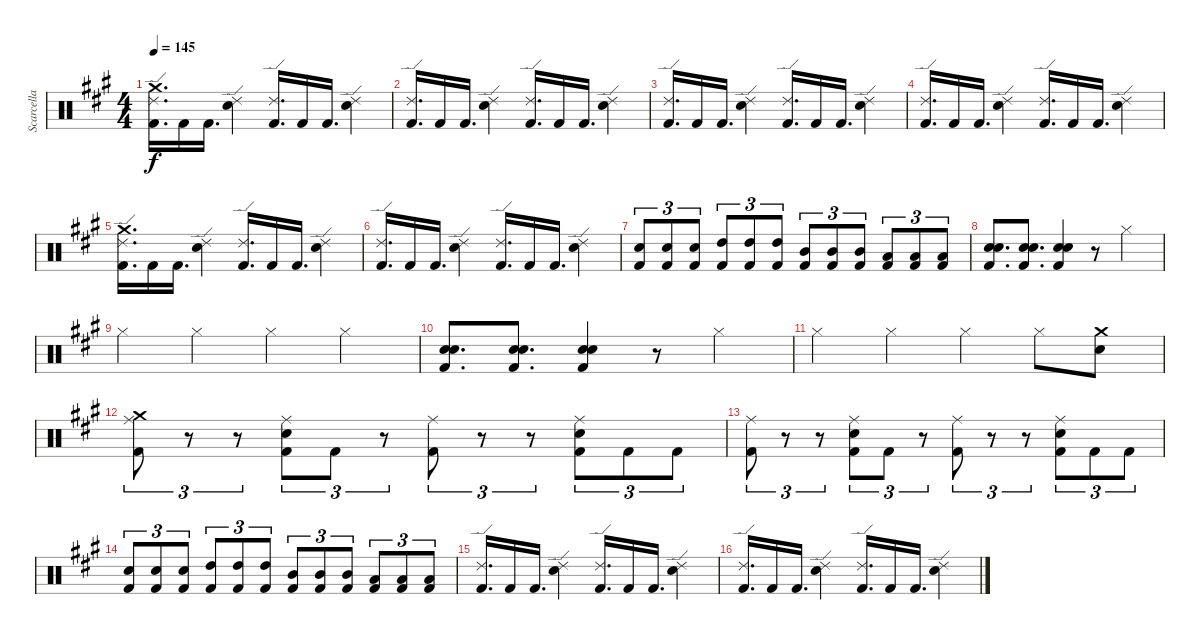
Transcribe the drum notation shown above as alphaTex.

\track ("Scarcella" "Scarcella") {instrument percussion}
\staff {score}
\articulation defaults
\ts (4 4)
\tempo 145
\clef neutral
\ks f#minor
("Crash medium (hit)" "Ride (edge) 2" "Kick (hit) 2").16{d dy f} "Kick (hit) 2".16 "Kick (hit) 2".16{d} ("Ride (edge) 2" "Snare (hit) 2").4 ("Ride (edge) 2" "Kick (hit) 2").16{d} "Kick (hit) 2".16 "Kick (hit) 2".16{d} ("Ride (edge) 2" "Snare (hit) 2").4 |
("Ride (edge) 2" "Kick (hit) 2").16{d} "Kick (hit) 2".16 "Kick (hit) 2".16{d} ("Ride (edge) 2" "Snare (hit) 2").4 ("Ride (edge) 2" "Kick (hit) 2").16{d} "Kick (hit) 2".16 "Kick (hit) 2".16{d} ("Ride (edge) 2" "Snare (hit) 2").4 |
("Ride (edge) 2" "Kick (hit) 2").16{d} "Kick (hit) 2".16 "Kick (hit) 2".16{d} ("Ride (edge) 2" "Snare (hit) 2").4 ("Ride (edge) 2" "Kick (hit) 2").16{d} "Kick (hit) 2".16 "Kick (hit) 2".16{d} ("Ride (edge) 2" "Snare (hit) 2").4 |
("Ride (edge) 2" "Kick (hit) 2").16{d} "Kick (hit) 2".16 "Kick (hit) 2".16{d} ("Ride (edge) 2" "Snare (hit) 2").4 ("Ride (edge) 2" "Kick (hit) 2").16{d} "Kick (hit) 2".16 "Kick (hit) 2".16{d} ("Ride (edge) 2" "Snare (hit) 2").4 |
("Crash medium (hit)" "Ride (edge) 2" "Kick (hit) 2").16{d} "Kick (hit) 2".16 "Kick (hit) 2".16{d} ("Ride (edge) 2" "Snare (hit) 2").4 ("Ride (edge) 2" "Kick (hit) 2").16{d} "Kick (hit) 2".16 "Kick (hit) 2".16{d} ("Ride (edge) 2" "Snare (hit) 2").4 |
("Ride (edge) 2" "Kick (hit) 2").16{d} "Kick (hit) 2".16 "Kick (hit) 2".16{d} ("Ride (edge) 2" "Snare (hit) 2").4 ("Ride (edge) 2" "Kick (hit) 2").16{d} "Kick (hit) 2".16 "Kick (hit) 2".16{d} ("Ride (edge) 2" "Snare (hit) 2").4 |
("Snare (hit) 2" "Kick (hit) 2").8{tu (3 2)} ("Snare (hit) 2" "Kick (hit) 2").8{tu (3 2)} ("Snare (hit) 2" "Kick (hit) 2").8{tu (3 2)} ("High Tom (hit)" "Kick (hit) 2").8{tu (3 2)} ("High Tom (hit)" "Kick (hit) 2").8{tu (3 2)} ("High Tom (hit)" "Kick (hit) 2").8{tu (3 2)} ("Mid Tom (hit)" "Kick (hit) 2").8{tu (3 2)} ("Mid Tom (hit)" "Kick (hit) 2").8{tu (3 2)} ("Mid Tom (hit)" "Kick (hit) 2").8{tu (3 2)} ("Low Tom (hit)" "Kick (hit) 2").8{tu (3 2)} ("Low Tom (hit)" "Kick (hit) 2").8{tu (3 2)} ("Low Tom (hit)" "Kick (hit) 2").8{tu (3 2)} |
("Snare (hit) 2" "Kick (hit) 2" "Snare (hit) 2").8{d} ("Snare (hit) 2" "Kick (hit) 2" "Snare (hit) 2").8{d} ("Snare (hit) 2" "Kick (hit) 2" "Snare (hit) 2").4 r.8 "Hi-Hat (closed)".4 |
"Hi-Hat (closed)".4 "Hi-Hat (closed)".4 "Hi-Hat (closed)".4 "Hi-Hat (closed)".4 |
("Snare (hit) 2" "Kick (hit) 2" "Snare (hit) 2").8{d} ("Snare (hit) 2" "Kick (hit) 2" "Snare (hit) 2").8{d} ("Snare (hit) 2" "Kick (hit) 2" "Snare (hit) 2").4 r.8 "Hi-Hat (closed)".4 |
"Hi-Hat (closed)".4 "Hi-Hat (closed)".4 "Hi-Hat (closed)".4 "Hi-Hat (closed)".8 ("Snare (hit) 2" "Crash medium (hit)").8 |
("Ride (middle)" "Crash medium (hit)" "Kick (hit) 2").8{tu (3 2)} r.8{tu (3 2)} r.8{tu (3 2)} ("Ride (middle)" "Snare (hit) 2" "Kick (hit) 2").8{tu (3 2)} "Kick (hit) 2".8{tu (3 2)} r.8{tu (3 2)} ("Ride (middle)" "Kick (hit) 2").8{tu (3 2)} r.8{tu (3 2)} r.8{tu (3 2)} ("Ride (middle)" "Snare (hit) 2" "Kick (hit) 2").8{tu (3 2)} "Kick (hit) 2".8{tu (3 2)} "Kick (hit) 2".8{tu (3 2)} |
("Ride (middle)" "Kick (hit) 2").8{tu (3 2)} r.8{tu (3 2)} r.8{tu (3 2)} ("Ride (middle)" "Snare (hit) 2" "Kick (hit) 2").8{tu (3 2)} "Kick (hit) 2".8{tu (3 2)} r.8{tu (3 2)} ("Ride (middle)" "Kick (hit) 2").8{tu (3 2)} r.8{tu (3 2)} r.8{tu (3 2)} ("Ride (middle)" "Snare (hit) 2" "Kick (hit) 2").8{tu (3 2)} "Kick (hit) 2".8{tu (3 2)} "Kick (hit) 2".8{tu (3 2)} |
("Snare (hit) 2" "Kick (hit) 2").8{tu (3 2)} ("Snare (hit) 2" "Kick (hit) 2").8{tu (3 2)} ("Snare (hit) 2" "Kick (hit) 2").8{tu (3 2)} ("High Tom (hit)" "Kick (hit) 2").8{tu (3 2)} ("High Tom (hit)" "Kick (hit) 2").8{tu (3 2)} ("High Tom (hit)" "Kick (hit) 2").8{tu (3 2)} ("Mid Tom (hit)" "Kick (hit) 2").8{tu (3 2)} ("Mid Tom (hit)" "Kick (hit) 2").8{tu (3 2)} ("Mid Tom (hit)" "Kick (hit) 2").8{tu (3 2)} ("Low Tom (hit)" "Kick (hit) 2").8{tu (3 2)} ("Low Tom (hit)" "Kick (hit) 2").8{tu (3 2)} ("Low Tom (hit)" "Kick (hit) 2").8{tu (3 2)} |
("Ride (edge) 2" "Kick (hit) 2").16{d} "Kick (hit) 2".16 "Kick (hit) 2".16{d} ("Ride (edge) 2" "Snare (hit) 2").4 ("Ride (edge) 2" "Kick (hit) 2").16{d} "Kick (hit) 2".16 "Kick (hit) 2".16{d} ("Ride (edge) 2" "Snare (hit) 2").4 |
("Ride (edge) 2" "Kick (hit) 2").16{d} "Kick (hit) 2".16 "Kick (hit) 2".16{d} ("Ride (edge) 2" "Snare (hit) 2").4 ("Ride (edge) 2" "Kick (hit) 2").16{d} "Kick (hit) 2".16 "Kick (hit) 2".16{d} ("Ride (edge) 2" "Snare (hit) 2").4
